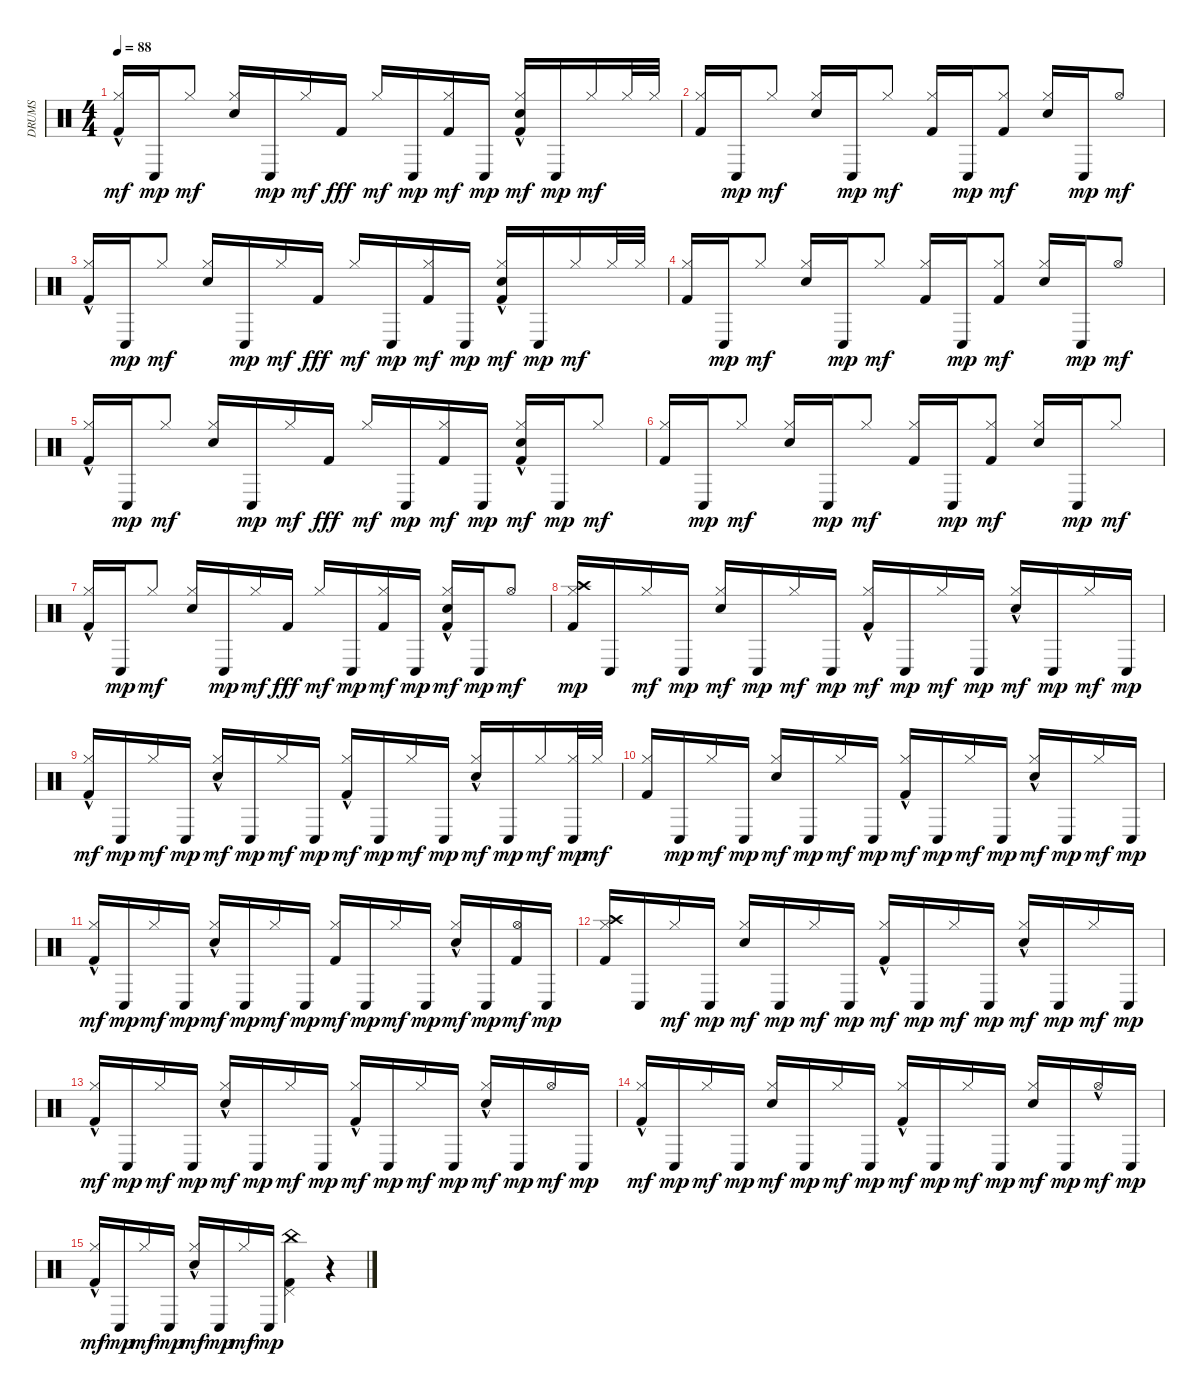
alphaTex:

\track ("DRUMS" "DRUMS") {instrument percussion}
\staff {score}
\articulation defaults
\ts (4 4)
\tempo 88
\clef neutral
\ks c
("Kick (hit) 2"{hac} "Hi-Hat (closed)").16{dy mf} "Conga low (hit)".16{dy mp} "Hi-Hat (closed)".8{dy mf} ("Snare (hit) 2" "Hi-Hat (closed)").16 "Conga low (hit)".16{dy mp} "Hi-Hat (closed)".16{dy mf} "Kick (hit) 2".16{dy fff} "Hi-Hat (closed)".16{dy mf} "Conga low (hit)".16{dy mp} ("Kick (hit) 2" "Hi-Hat (closed)").16{dy mf} "Conga low (hit)".16{dy mp} ("Kick (hit) 2"{hac} "Snare (hit) 2" "Hi-Hat (closed)").16{dy mf} "Conga low (hit)".16{dy mp} "Hi-Hat (closed)".16{dy mf} "Hi-Hat (closed)".32 "Hi-Hat (closed)".32 |
("Kick (hit) 2" "Hi-Hat (closed)").16 "Conga low (hit)".16{dy mp} "Hi-Hat (closed)".8{dy mf} ("Snare (hit) 2" "Hi-Hat (closed)").16 "Conga low (hit)".16{dy mp} "Hi-Hat (closed)".8{dy mf} ("Kick (hit) 2" "Hi-Hat (closed)").16 "Conga low (hit)".16{dy mp} ("Kick (hit) 2" "Hi-Hat (closed)").8{dy mf} ("Snare (hit) 2" "Hi-Hat (closed)").16 "Conga low (hit)".16{dy mp} "Hi-Hat (open)".8{dy mf} |
("Kick (hit) 2"{hac} "Hi-Hat (closed)").16 "Conga low (hit)".16{dy mp} "Hi-Hat (closed)".8{dy mf} ("Snare (hit) 2" "Hi-Hat (closed)").16 "Conga low (hit)".16{dy mp} "Hi-Hat (closed)".16{dy mf} "Kick (hit) 2".16{dy fff} "Hi-Hat (closed)".16{dy mf} "Conga low (hit)".16{dy mp} ("Kick (hit) 2" "Hi-Hat (closed)").16{dy mf} "Conga low (hit)".16{dy mp} ("Kick (hit) 2"{hac} "Snare (hit) 2" "Hi-Hat (closed)").16{dy mf} "Conga low (hit)".16{dy mp} "Hi-Hat (closed)".16{dy mf} "Hi-Hat (closed)".32 "Hi-Hat (closed)".32 |
("Kick (hit) 2" "Hi-Hat (closed)").16 "Conga low (hit)".16{dy mp} "Hi-Hat (closed)".8{dy mf} ("Snare (hit) 2" "Hi-Hat (closed)").16 "Conga low (hit)".16{dy mp} "Hi-Hat (closed)".8{dy mf} ("Kick (hit) 2" "Hi-Hat (closed)").16 "Conga low (hit)".16{dy mp} ("Kick (hit) 2" "Hi-Hat (closed)").8{dy mf} ("Snare (hit) 2" "Hi-Hat (closed)").16 "Conga low (hit)".16{dy mp} "Hi-Hat (open)".8{dy mf} |
("Kick (hit) 2"{hac} "Hi-Hat (closed)").16 "Conga low (hit)".16{dy mp} "Hi-Hat (closed)".8{dy mf} ("Snare (hit) 2" "Hi-Hat (closed)").16 "Conga low (hit)".16{dy mp} "Hi-Hat (closed)".16{dy mf} "Kick (hit) 2".16{dy fff} "Hi-Hat (closed)".16{dy mf} "Conga low (hit)".16{dy mp} ("Kick (hit) 2" "Hi-Hat (closed)").16{dy mf} "Conga low (hit)".16{dy mp} ("Kick (hit) 2"{hac} "Snare (hit) 2" "Hi-Hat (closed)").16{dy mf} "Conga low (hit)".16{dy mp} "Hi-Hat (closed)".8{dy mf} |
("Kick (hit) 2" "Hi-Hat (closed)").16 "Conga low (hit)".16{dy mp} "Hi-Hat (closed)".8{dy mf} ("Snare (hit) 2" "Hi-Hat (closed)").16 "Conga low (hit)".16{dy mp} "Hi-Hat (closed)".8{dy mf} ("Kick (hit) 2" "Hi-Hat (closed)").16 "Conga low (hit)".16{dy mp} ("Kick (hit) 2" "Hi-Hat (closed)").8{dy mf} ("Snare (hit) 2" "Hi-Hat (closed)").16 "Conga low (hit)".16{dy mp} "Hi-Hat (closed)".8{dy mf} |
("Kick (hit) 2"{hac} "Hi-Hat (closed)").16 "Conga low (hit)".16{dy mp} "Hi-Hat (closed)".8{dy mf} ("Snare (hit) 2" "Hi-Hat (closed)").16 "Conga low (hit)".16{dy mp} "Hi-Hat (closed)".16{dy mf} "Kick (hit) 2".16{dy fff} "Hi-Hat (closed)".16{dy mf} "Conga low (hit)".16{dy mp} ("Kick (hit) 2" "Hi-Hat (closed)").16{dy mf} "Conga low (hit)".16{dy mp} ("Kick (hit) 2"{hac} "Snare (hit) 2" "Hi-Hat (closed)").16{dy mf} "Conga low (hit)".16{dy mp} "Hi-Hat (open)".8{dy mf} |
("Kick (hit) 2" "Hi-Hat (closed)" "Crash high (hit)").16{dy mp} "Conga low (hit)".16 "Hi-Hat (closed)".16{dy mf} "Conga low (hit)".16{dy mp} ("Snare (hit) 2" "Hi-Hat (closed)").16{dy mf} "Conga low (hit)".16{dy mp} "Hi-Hat (closed)".16{dy mf} "Conga low (hit)".16{dy mp} ("Kick (hit) 2"{hac} "Hi-Hat (closed)").16{dy mf} "Conga low (hit)".16{dy mp} "Hi-Hat (closed)".16{dy mf} "Conga low (hit)".16{dy mp} ("Snare (hit) 2"{hac} "Hi-Hat (closed)").16{dy mf} "Conga low (hit)".16{dy mp} "Hi-Hat (closed)".16{dy mf} "Conga low (hit)".16{dy mp} |
("Kick (hit) 2"{hac} "Hi-Hat (closed)").16{dy mf} "Conga low (hit)".16{dy mp} "Hi-Hat (closed)".16{dy mf} "Conga low (hit)".16{dy mp} ("Snare (hit) 2"{hac} "Hi-Hat (closed)").16{dy mf} "Conga low (hit)".16{dy mp} "Hi-Hat (closed)".16{dy mf} "Conga low (hit)".16{dy mp} ("Kick (hit) 2"{hac} "Hi-Hat (closed)").16{dy mf} "Conga low (hit)".16{dy mp} "Hi-Hat (closed)".16{dy mf} "Conga low (hit)".16{dy mp} ("Snare (hit) 2"{hac} "Hi-Hat (closed)").16{dy mf} "Conga low (hit)".16{dy mp} "Hi-Hat (closed)".16{dy mf} ("Hi-Hat (closed)" "Conga low (hit)").32{dy mp} "Hi-Hat (closed)".32{dy mf} |
("Kick (hit) 2" "Hi-Hat (closed)").16 "Conga low (hit)".16{dy mp} "Hi-Hat (closed)".16{dy mf} "Conga low (hit)".16{dy mp} ("Snare (hit) 2" "Hi-Hat (closed)").16{dy mf} "Conga low (hit)".16{dy mp} "Hi-Hat (closed)".16{dy mf} "Conga low (hit)".16{dy mp} ("Kick (hit) 2"{hac} "Hi-Hat (closed)").16{dy mf} "Conga low (hit)".16{dy mp} "Hi-Hat (closed)".16{dy mf} "Conga low (hit)".16{dy mp} ("Snare (hit) 2"{hac} "Hi-Hat (closed)").16{dy mf} "Conga low (hit)".16{dy mp} "Hi-Hat (closed)".16{dy mf} "Conga low (hit)".16{dy mp} |
("Kick (hit) 2"{hac} "Hi-Hat (closed)").16{dy mf} "Conga low (hit)".16{dy mp} "Hi-Hat (closed)".16{dy mf} "Conga low (hit)".16{dy mp} ("Snare (hit) 2"{hac} "Hi-Hat (closed)").16{dy mf} "Conga low (hit)".16{dy mp} "Hi-Hat (closed)".16{dy mf} "Conga low (hit)".16{dy mp} ("Kick (hit) 2" "Hi-Hat (closed)").16{dy mf} "Conga low (hit)".16{dy mp} "Hi-Hat (closed)".16{dy mf} "Conga low (hit)".16{dy mp} ("Snare (hit) 2"{hac} "Hi-Hat (closed)").16{dy mf} "Conga low (hit)".16{dy mp} ("Kick (hit) 2" "Hi-Hat (open)").16{dy mf} "Conga low (hit)".16{dy mp} |
("Kick (hit) 2" "Hi-Hat (closed)" "Crash high (hit)").16 "Conga low (hit)".16 "Hi-Hat (closed)".16{dy mf} "Conga low (hit)".16{dy mp} ("Snare (hit) 2" "Hi-Hat (closed)").16{dy mf} "Conga low (hit)".16{dy mp} "Hi-Hat (closed)".16{dy mf} "Conga low (hit)".16{dy mp} ("Kick (hit) 2"{hac} "Hi-Hat (closed)").16{dy mf} "Conga low (hit)".16{dy mp} "Hi-Hat (closed)".16{dy mf} "Conga low (hit)".16{dy mp} ("Snare (hit) 2"{hac} "Hi-Hat (closed)").16{dy mf} "Conga low (hit)".16{dy mp} "Hi-Hat (closed)".16{dy mf} "Conga low (hit)".16{dy mp} |
("Kick (hit) 2"{hac} "Hi-Hat (closed)").16{dy mf} "Conga low (hit)".16{dy mp} "Hi-Hat (closed)".16{dy mf} "Conga low (hit)".16{dy mp} ("Snare (hit) 2"{hac} "Hi-Hat (closed)").16{dy mf} "Conga low (hit)".16{dy mp} "Hi-Hat (closed)".16{dy mf} "Conga low (hit)".16{dy mp} ("Kick (hit) 2"{hac} "Hi-Hat (closed)").16{dy mf} "Conga low (hit)".16{dy mp} "Hi-Hat (closed)".16{dy mf} "Conga low (hit)".16{dy mp} ("Snare (hit) 2"{hac} "Hi-Hat (closed)").16{dy mf} "Conga low (hit)".16{dy mp} "Hi-Hat (open)".16{dy mf} "Conga low (hit)".16{dy mp} |
("Kick (hit) 2"{hac} "Hi-Hat (closed)").16{dy mf} "Conga low (hit)".16{dy mp} "Hi-Hat (closed)".16{dy mf} "Conga low (hit)".16{dy mp} ("Snare (hit) 2" "Hi-Hat (closed)").16{dy mf} "Conga low (hit)".16{dy mp} "Hi-Hat (closed)".16{dy mf} "Conga low (hit)".16{dy mp} ("Kick (hit) 2"{hac} "Hi-Hat (closed)").16{dy mf} "Conga low (hit)".16{dy mp} "Hi-Hat (closed)".16{dy mf} "Conga low (hit)".16{dy mp} ("Snare (hit) 2" "Hi-Hat (closed)").16{dy mf} "Conga low (hit)".16{dy mp} "Hi-Hat (open)"{hac}.16{dy mf} "Conga low (hit)".16{dy mp} |
("Kick (hit) 2"{hac} "Hi-Hat (closed)").16{dy mf} "Conga low (hit)".16{dy mp} "Hi-Hat (closed)".16{dy mf} "Conga low (hit)".16{dy mp} ("Snare (hit) 2"{hac} "Hi-Hat (closed)").16{dy mf} "Conga low (hit)".16{dy mp} "Hi-Hat (closed)".16{dy mf} "Conga low (hit)".16{dy mp} ("Kick (hit) 2" "Pedal Hi-Hat (hit)" "China (hit)").4 r.4
